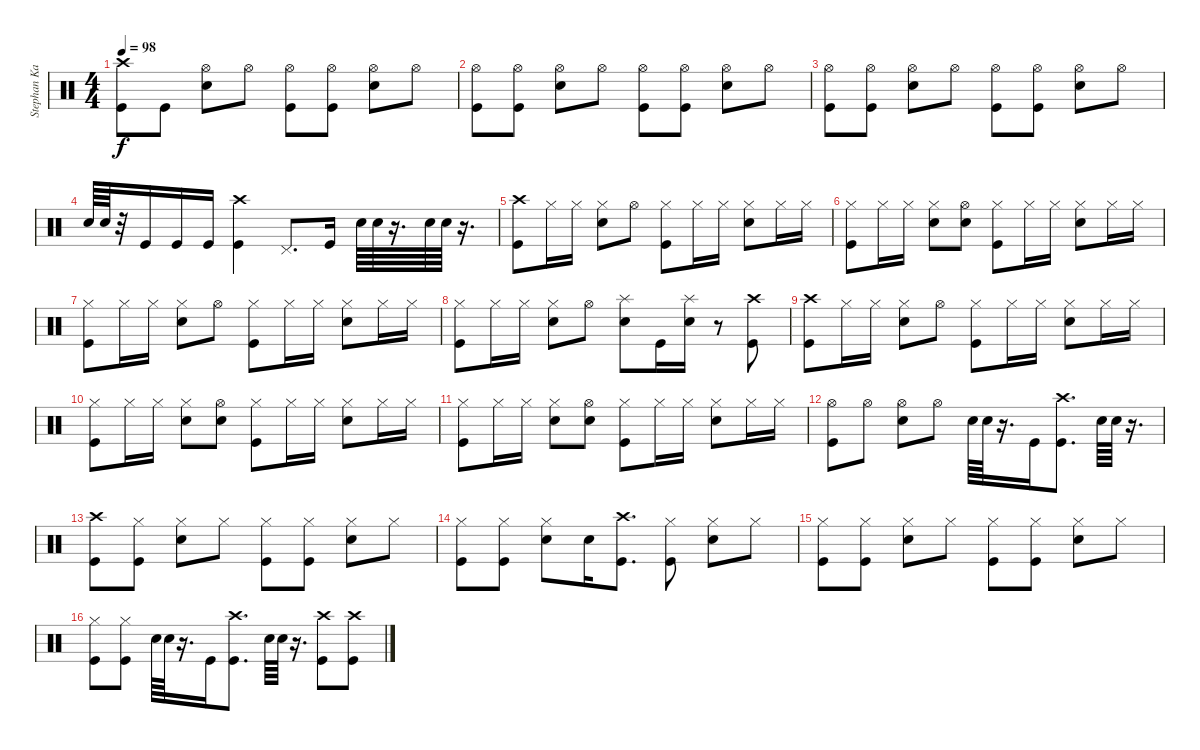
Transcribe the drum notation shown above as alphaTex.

\track ("Stephan Kaufmann" "Stephan Ka") {instrument percussion}
\staff {score}
\articulation defaults
\ts (4 4)
\tempo 98
\clef neutral
\ks c
("Crash high (hit)" "Kick (hit)").8{dy f} "Kick (hit)".8 ("Hi-Hat (open)" "Snare (hit) 2").8 "Hi-Hat (open)".8 ("Hi-Hat (open)" "Kick (hit)").8 ("Hi-Hat (open)" "Kick (hit)").8 ("Hi-Hat (open)" "Snare (hit) 2").8 "Hi-Hat (open)".8 |
("Hi-Hat (open)" "Kick (hit)").8 ("Hi-Hat (open)" "Kick (hit)").8 ("Hi-Hat (open)" "Snare (hit) 2").8 "Hi-Hat (open)".8 ("Hi-Hat (open)" "Kick (hit)").8 ("Hi-Hat (open)" "Kick (hit)").8 ("Hi-Hat (open)" "Snare (hit) 2").8 "Hi-Hat (open)".8 |
("Hi-Hat (open)" "Kick (hit)").8 ("Hi-Hat (open)" "Kick (hit)").8 ("Hi-Hat (open)" "Snare (hit) 2").8 "Hi-Hat (open)".8 ("Hi-Hat (open)" "Kick (hit)").8 ("Hi-Hat (open)" "Kick (hit)").8 ("Hi-Hat (open)" "Snare (hit) 2").8 "Hi-Hat (open)".8 |
"Snare (hit) 2".64 "Snare (hit) 2".64 r.32 "Kick (hit)".16 "Kick (hit)".16 "Kick (hit)".16 ("Crash high (hit)" "Kick (hit)").4 "Pedal Hi-Hat (hit)".8{d} "Kick (hit)".16 "Snare (hit) 2".64 "Snare (hit) 2".64 r.16{d} "Snare (hit) 2".64 "Snare (hit) 2".64 r.16{d} |
("Crash high (hit)" "Kick (hit)").8 "Hi-Hat (closed)".16 "Hi-Hat (closed)".16 ("Hi-Hat (closed)" "Snare (hit) 2").8 "Hi-Hat (open)".8 ("Hi-Hat (closed)" "Kick (hit)").8 "Hi-Hat (closed)".16 "Hi-Hat (closed)".16 ("Hi-Hat (closed)" "Snare (hit) 2").8 "Hi-Hat (closed)".16 "Hi-Hat (closed)".16 |
("Hi-Hat (closed)" "Kick (hit)").8 "Hi-Hat (closed)".16 "Hi-Hat (closed)".16 ("Hi-Hat (closed)" "Snare (hit) 2").8 ("Hi-Hat (open)" "Snare (hit) 2").8 ("Hi-Hat (closed)" "Kick (hit)").8 "Hi-Hat (closed)".16 "Hi-Hat (closed)".16 ("Hi-Hat (closed)" "Snare (hit) 2").8 "Hi-Hat (closed)".16 "Hi-Hat (closed)".16 |
("Hi-Hat (closed)" "Kick (hit)").8 "Hi-Hat (closed)".16 "Hi-Hat (closed)".16 ("Hi-Hat (closed)" "Snare (hit) 2").8 "Hi-Hat (open)".8 ("Hi-Hat (closed)" "Kick (hit)").8 "Hi-Hat (closed)".16 "Hi-Hat (closed)".16 ("Hi-Hat (closed)" "Snare (hit) 2").8 "Hi-Hat (closed)".16 "Hi-Hat (closed)".16 |
("Hi-Hat (closed)" "Kick (hit)").8 "Hi-Hat (closed)".16 "Hi-Hat (closed)".16 ("Hi-Hat (closed)" "Snare (hit) 2").8 "Hi-Hat (open)".8 ("Splash (hit)" "Snare (hit) 2").8 "Kick (hit)".16 ("Splash (hit)" "Snare (hit) 2").16 r.8 ("Crash high (hit)" "Kick (hit)").8 |
("Crash high (hit)" "Kick (hit)").8 "Hi-Hat (closed)".16 "Hi-Hat (closed)".16 ("Hi-Hat (closed)" "Snare (hit) 2").8 "Hi-Hat (open)".8 ("Hi-Hat (closed)" "Kick (hit)").8 "Hi-Hat (closed)".16 "Hi-Hat (closed)".16 ("Hi-Hat (closed)" "Snare (hit) 2").8 "Hi-Hat (closed)".16 "Hi-Hat (closed)".16 |
("Hi-Hat (closed)" "Kick (hit)").8 "Hi-Hat (closed)".16 "Hi-Hat (closed)".16 ("Hi-Hat (closed)" "Snare (hit) 2").8 ("Hi-Hat (open)" "Snare (hit) 2").8 ("Hi-Hat (closed)" "Kick (hit)").8 "Hi-Hat (closed)".16 "Hi-Hat (closed)".16 ("Hi-Hat (closed)" "Snare (hit) 2").8 "Hi-Hat (closed)".16 "Hi-Hat (closed)".16 |
("Hi-Hat (closed)" "Kick (hit)").8 "Hi-Hat (closed)".16 "Hi-Hat (closed)".16 ("Hi-Hat (closed)" "Snare (hit) 2").8 ("Hi-Hat (open)" "Snare (hit) 2").8 ("Hi-Hat (closed)" "Kick (hit)").8 "Hi-Hat (closed)".16 "Hi-Hat (closed)".16 ("Hi-Hat (closed)" "Snare (hit) 2").8 "Hi-Hat (closed)".16 "Hi-Hat (closed)".16 |
("Hi-Hat (open)" "Kick (hit)").8 "Hi-Hat (open)".8 ("Hi-Hat (open)" "Snare (hit) 2").8 "Hi-Hat (open)".8 "Snare (hit) 2".64 "Snare (hit) 2".64 r.16{d} "Kick (hit)".16 ("Crash high (hit)" "Kick (hit)").8{d} "Snare (hit) 2".64 "Snare (hit) 2".64 r.16{d} |
("Crash high (hit)" "Kick (hit)").8 ("Hi-Hat (closed)" "Kick (hit)").8 ("Hi-Hat (closed)" "Snare (hit) 2").8 "Hi-Hat (closed)".8 ("Hi-Hat (closed)" "Kick (hit)").8 ("Hi-Hat (closed)" "Kick (hit)").8 ("Hi-Hat (closed)" "Snare (hit) 2").8 "Hi-Hat (closed)".8 |
("Hi-Hat (closed)" "Kick (hit)").8 ("Hi-Hat (closed)" "Kick (hit)").8 ("Hi-Hat (closed)" "Snare (hit) 2").8 "Snare (hit) 2".16 ("Crash high (hit)" "Kick (hit)").8{d} ("Hi-Hat (closed)" "Kick (hit)").8 ("Hi-Hat (closed)" "Snare (hit) 2").8 "Hi-Hat (closed)".8 |
("Hi-Hat (closed)" "Kick (hit)").8 ("Hi-Hat (closed)" "Kick (hit)").8 ("Hi-Hat (closed)" "Snare (hit) 2").8 "Hi-Hat (closed)".8 ("Hi-Hat (closed)" "Kick (hit)").8 ("Hi-Hat (closed)" "Kick (hit)").8 ("Hi-Hat (closed)" "Snare (hit) 2").8 "Hi-Hat (closed)".8 |
("Hi-Hat (closed)" "Kick (hit)").8 ("Hi-Hat (closed)" "Kick (hit)").8 "Snare (hit) 2".64 "Snare (hit) 2".64 r.16{d} "Kick (hit)".16 ("Crash high (hit)" "Kick (hit)").8{d} "Snare (hit) 2".64 "Snare (hit) 2".64 r.16{d} ("Crash high (hit)" "Kick (hit)").8 ("Crash high (hit)" "Kick (hit)").8
